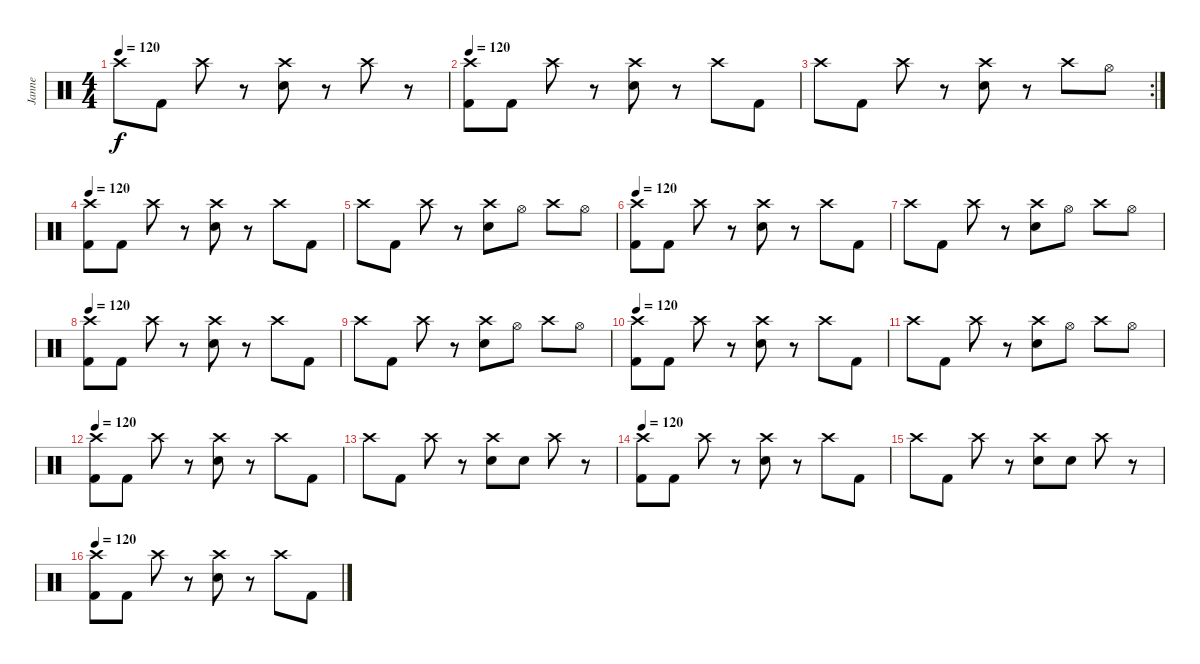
\track ("Janne" "Janne") {instrument percussion}
\staff {score}
\articulation defaults
\ts (4 4)
\tempo 120
\clef neutral
\ks c "Crash high (hit)".8{dy f} "Kick (hit) 2".8 "Crash high (hit)".8
r.8 ("Crash high (hit)" "Electric Snare (hit)").8 r.8 "Crash high (hit)".8 r.8 |
\tempo 120
("Crash high (hit)" "Kick (hit) 2").8 "Kick (hit) 2".8 "Crash high (hit)".8 r.8 ("Crash high (hit)" "Electric Snare (hit)").8 r.8 "Crash high (hit)".8 "Kick (hit) 2".8 |
\rc 2 "Crash high (hit)".8 "Kick (hit) 2".8 "Crash high (hit)".8
r.8 ("Crash high (hit)" "Electric Snare (hit)").8 r.8 "Crash high (hit)".8 "Hi-Hat (open)".8 |
\tempo 120
("Crash high (hit)" "Kick (hit) 2").8 "Kick (hit) 2".8 "Crash high (hit)".8 r.8 ("Crash high (hit)" "Electric Snare (hit)").8 r.8 "Crash high (hit)".8 "Kick (hit) 2".8 |
"Crash high (hit)".8 "Kick (hit) 2".8 "Crash high (hit)".8 r.8 ("Crash high (hit)" "Electric Snare (hit)").8 "Hi-Hat (open)".8 "Crash high (hit)".8 "Hi-Hat (open)".8 |
\tempo 120
("Crash high (hit)" "Kick (hit) 2").8 "Kick (hit) 2".8 "Crash high (hit)".8 r.8 ("Crash high (hit)" "Electric Snare (hit)").8 r.8 "Crash high (hit)".8 "Kick (hit) 2".8 |
"Crash high (hit)".8 "Kick (hit) 2".8 "Crash high (hit)".8 r.8 ("Crash high (hit)" "Electric Snare (hit)").8 "Hi-Hat (open)".8 "Crash high (hit)".8 "Hi-Hat (open)".8 |
\tempo 120
("Crash high (hit)" "Kick (hit) 2").8 "Kick (hit) 2".8 "Crash high (hit)".8 r.8 ("Crash high (hit)" "Electric Snare (hit)").8 r.8 "Crash high (hit)".8 "Kick (hit) 2".8 |
"Crash high (hit)".8 "Kick (hit) 2".8 "Crash high (hit)".8 r.8 ("Crash high (hit)" "Electric Snare (hit)").8 "Hi-Hat (open)".8 "Crash high (hit)".8 "Hi-Hat (open)".8 |
\tempo 120
("Crash high (hit)" "Kick (hit) 2").8 "Kick (hit) 2".8 "Crash high (hit)".8 r.8 ("Crash high (hit)" "Electric Snare (hit)").8 r.8 "Crash high (hit)".8 "Kick (hit) 2".8 |
"Crash high (hit)".8 "Kick (hit) 2".8 "Crash high (hit)".8 r.8 ("Crash high (hit)" "Electric Snare (hit)").8 "Hi-Hat (open)".8 "Crash high (hit)".8 "Hi-Hat (open)".8 |
\tempo 120
("Crash high (hit)" "Kick (hit) 2").8 "Kick (hit) 2".8 "Crash high (hit)".8 r.8 ("Crash high (hit)" "Electric Snare (hit)").8 r.8 "Crash high (hit)".8 "Kick (hit) 2".8 |
"Crash high (hit)".8 "Kick (hit) 2".8 "Crash high (hit)".8 r.8 ("Crash high (hit)" "Electric Snare (hit)").8 "Electric Snare (hit)".8 "Crash high (hit)".8 r.8 |
\tempo 120
("Crash high (hit)" "Kick (hit) 2").8 "Kick (hit) 2".8 "Crash high (hit)".8 r.8 ("Crash high (hit)" "Electric Snare (hit)").8 r.8 "Crash high (hit)".8 "Kick (hit) 2".8 |
"Crash high (hit)".8 "Kick (hit) 2".8 "Crash high (hit)".8 r.8 ("Crash high (hit)" "Electric Snare (hit)").8 "Electric Snare (hit)".8 "Crash high (hit)".8 r.8 |
\tempo 120
("Crash high (hit)" "Kick (hit) 2").8 "Kick (hit) 2".8 "Crash high (hit)".8 r.8 ("Crash high (hit)" "Electric Snare (hit)").8 r.8 "Crash high (hit)".8 "Kick (hit) 2".8
